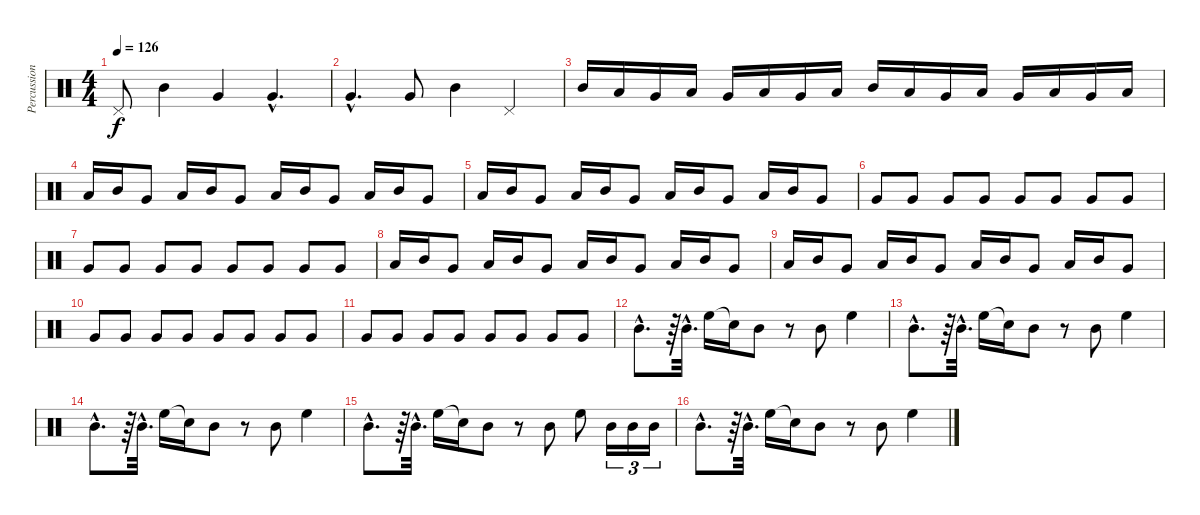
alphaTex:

\track ("Percussion" "Percussion") {instrument percussion}
\staff {score}
\articulation defaults
\ts (4 4)
\tempo 126
\clef neutral
\ks c "Pedal Hi-Hat (hit)".8{dy f} "Mid Tom (hit)".4 "Very Low Tom (hit)".4 "Very Low Tom (hit)"{hac}.4{d}
|
"Very Low Tom (hit)"{hac}.4{d} "Very Low Tom (hit)".8 "Mid Tom (hit)".4 "Pedal Hi-Hat (hit)".4 |
"Mid Tom (hit)".16 "Low Tom (hit)".16 "Very Low Tom (hit)".16 "Low Floor Tom (hit)".16 "Very Low Tom (hit)".16 "Low Floor Tom (hit)".16 "Very Low Tom (hit)".16 "Low Floor Tom (hit)".16 "Mid Tom (hit)".16 "Low Tom (hit)".16 "Very Low Tom (hit)".16 "Low Floor Tom (hit)".16 "Very Low Tom (hit)".16 "Low Floor Tom (hit)".16 "Very Low Tom (hit)".16 "Low Floor Tom (hit)".16 |
"Low Tom (hit)".16 "Mid Tom (hit)".16 "Very Low Tom (hit)".8 "Low Tom (hit)".16 "Mid Tom (hit)".16 "Very Low Tom (hit)".8 "Low Tom (hit)".16 "Mid Tom (hit)".16 "Very Low Tom (hit)".8 "Low Tom (hit)".16 "Mid Tom (hit)".16 "Very Low Tom (hit)".8 |
"Low Tom (hit)".16 "Mid Tom (hit)".16 "Very Low Tom (hit)".8 "Low Tom (hit)".16 "Mid Tom (hit)".16 "Very Low Tom (hit)".8 "Low Tom (hit)".16 "Mid Tom (hit)".16 "Very Low Tom (hit)".8 "Low Tom (hit)".16 "Mid Tom (hit)".16 "Very Low Tom (hit)".8 |
"Very Low Tom (hit)".8 "Very Low Tom (hit)".8 "Very Low Tom (hit)".8 "Very Low Tom (hit)".8 "Very Low Tom (hit)".8 "Very Low Tom (hit)".8 "Very Low Tom (hit)".8 "Very Low Tom (hit)".8 |
"Very Low Tom (hit)".8 "Very Low Tom (hit)".8 "Very Low Tom (hit)".8 "Very Low Tom (hit)".8 "Very Low Tom (hit)".8 "Very Low Tom (hit)".8 "Very Low Tom (hit)".8 "Very Low Tom (hit)".8 |
"Low Tom (hit)".16 "Mid Tom (hit)".16 "Very Low Tom (hit)".8 "Low Tom (hit)".16 "Mid Tom (hit)".16 "Very Low Tom (hit)".8 "Low Tom (hit)".16 "Mid Tom (hit)".16 "Very Low Tom (hit)".8 "Low Tom (hit)".16 "Mid Tom (hit)".16 "Very Low Tom (hit)".8 |
"Low Tom (hit)".16 "Mid Tom (hit)".16 "Very Low Tom (hit)".8 "Low Tom (hit)".16 "Mid Tom (hit)".16 "Very Low Tom (hit)".8 "Low Tom (hit)".16 "Mid Tom (hit)".16 "Very Low Tom (hit)".8 "Low Tom (hit)".16 "Mid Tom (hit)".16 "Very Low Tom (hit)".8 |
"Very Low Tom (hit)".8 "Very Low Tom (hit)".8 "Very Low Tom (hit)".8 "Very Low Tom (hit)".8 "Very Low Tom (hit)".8 "Very Low Tom (hit)".8 "Very Low Tom (hit)".8 "Very Low Tom (hit)".8 |
"Very Low Tom (hit)".8 "Very Low Tom (hit)".8 "Very Low Tom (hit)".8 "Very Low Tom (hit)".8 "Very Low Tom (hit)".8 "Very Low Tom (hit)".8 "Very Low Tom (hit)".8 "Very Low Tom (hit)".8 |
"Mid Tom (hit)"{hac}.8{d} r.64 "Mid Tom (hit)"{hac}.32{d} "High Floor Tom (hit)".16 "Snare (hit)"{t}.16 "Mid Tom (hit)".8 r.8 "Mid Tom (hit)".8 "High Floor Tom (hit)".4 |
"Mid Tom (hit)"{hac}.8{d} r.64 "Mid Tom (hit)"{hac}.32{d} "High Floor Tom (hit)".16 "Snare (hit)"{t}.16 "Mid Tom (hit)".8 r.8 "Mid Tom (hit)".8 "High Floor Tom (hit)".4 |
"Mid Tom (hit)"{hac}.8{d} r.64 "Mid Tom (hit)"{hac}.32{d} "High Floor Tom (hit)".16 "Snare (hit)"{t}.16 "Mid Tom (hit)".8 r.8 "Mid Tom (hit)".8 "High Floor Tom (hit)".4 |
"Mid Tom (hit)"{hac}.8{d} r.64 "Mid Tom (hit)"{hac}.32{d} "High Floor Tom (hit)".16 "Snare (hit)"{t}.16 "Mid Tom (hit)".8 r.8 "Mid Tom (hit)".8 "High Floor Tom (hit)".8 "Mid Tom (hit)".16{tu (3 2)} "Mid Tom (hit)".16{tu (3 2)} "Mid Tom (hit)".16{tu (3 2)} |
"Mid Tom (hit)"{hac}.8{d} r.64 "Mid Tom (hit)"{hac}.32{d} "High Floor Tom (hit)".16 "Snare (hit)"{t}.16 "Mid Tom (hit)".8 r.8 "Mid Tom (hit)".8 "High Floor Tom (hit)".4
